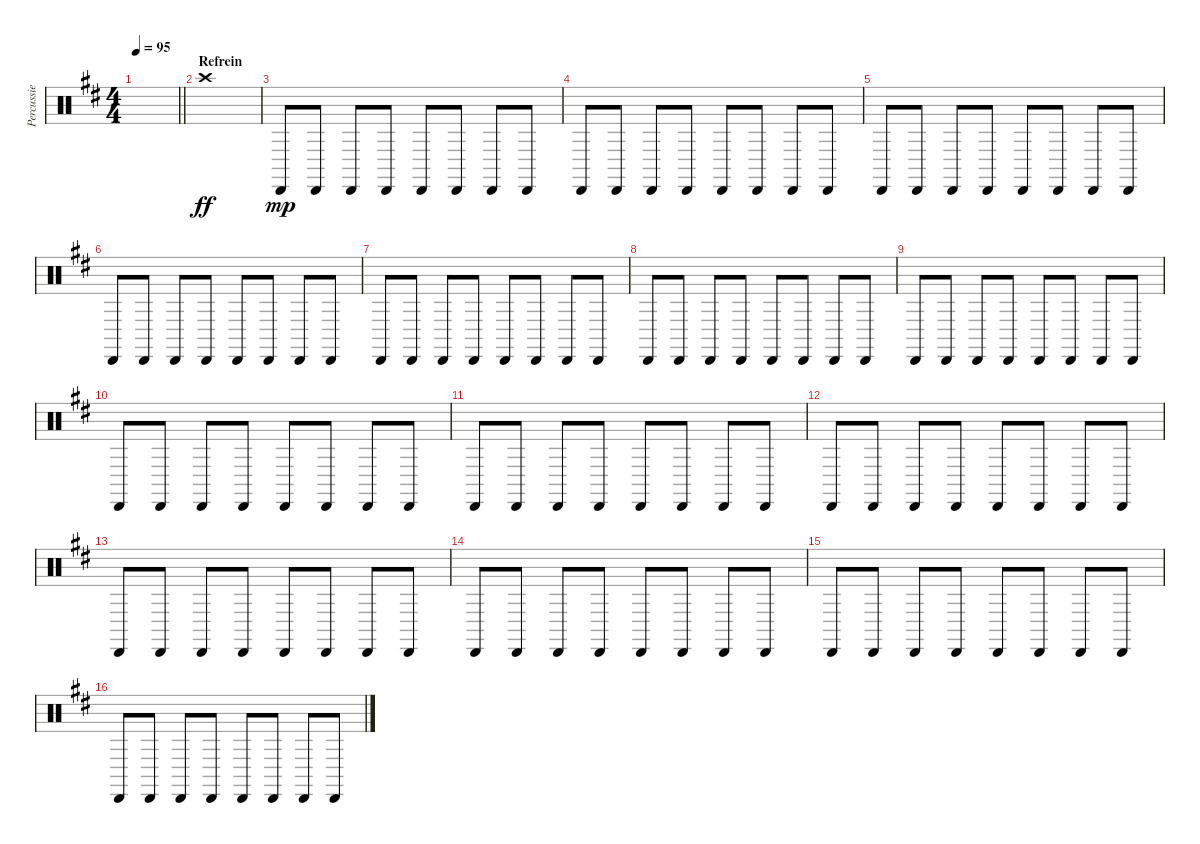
\track ("Percussie" "Percussie") {instrument percussion}
\staff {score}
\articulation defaults
\ts (4 4)
\tempo 95
\clef neutral
\barLineRight lightlight
\ks d
|
\section ("" "Refrein")
"Crash high (hit)".1{dy ff} |
"Cabasa (hit)".8{dy mp} "Cabasa (hit)".8 "Cabasa (hit)".8 "Cabasa (hit)".8 "Cabasa (hit)".8 "Cabasa (hit)".8 "Cabasa (hit)".8 "Cabasa (hit)".8 |
"Cabasa (hit)".8 "Cabasa (hit)".8 "Cabasa (hit)".8 "Cabasa (hit)".8 "Cabasa (hit)".8 "Cabasa (hit)".8 "Cabasa (hit)".8 "Cabasa (hit)".8 |
"Cabasa (hit)".8 "Cabasa (hit)".8 "Cabasa (hit)".8 "Cabasa (hit)".8 "Cabasa (hit)".8 "Cabasa (hit)".8 "Cabasa (hit)".8 "Cabasa (hit)".8 |
"Cabasa (hit)".8 "Cabasa (hit)".8 "Cabasa (hit)".8 "Cabasa (hit)".8 "Cabasa (hit)".8 "Cabasa (hit)".8 "Cabasa (hit)".8 "Cabasa (hit)".8 |
"Cabasa (hit)".8 "Cabasa (hit)".8 "Cabasa (hit)".8 "Cabasa (hit)".8 "Cabasa (hit)".8 "Cabasa (hit)".8 "Cabasa (hit)".8 "Cabasa (hit)".8 |
"Cabasa (hit)".8 "Cabasa (hit)".8 "Cabasa (hit)".8 "Cabasa (hit)".8 "Cabasa (hit)".8 "Cabasa (hit)".8 "Cabasa (hit)".8 "Cabasa (hit)".8 |
"Cabasa (hit)".8 "Cabasa (hit)".8 "Cabasa (hit)".8 "Cabasa (hit)".8 "Cabasa (hit)".8 "Cabasa (hit)".8 "Cabasa (hit)".8 "Cabasa (hit)".8 |
"Cabasa (hit)".8 "Cabasa (hit)".8 "Cabasa (hit)".8 "Cabasa (hit)".8 "Cabasa (hit)".8 "Cabasa (hit)".8 "Cabasa (hit)".8 "Cabasa (hit)".8 |
"Cabasa (hit)".8 "Cabasa (hit)".8 "Cabasa (hit)".8 "Cabasa (hit)".8 "Cabasa (hit)".8 "Cabasa (hit)".8 "Cabasa (hit)".8 "Cabasa (hit)".8 |
"Cabasa (hit)".8 "Cabasa (hit)".8 "Cabasa (hit)".8 "Cabasa (hit)".8 "Cabasa (hit)".8 "Cabasa (hit)".8 "Cabasa (hit)".8 "Cabasa (hit)".8 |
"Cabasa (hit)".8 "Cabasa (hit)".8 "Cabasa (hit)".8 "Cabasa (hit)".8 "Cabasa (hit)".8 "Cabasa (hit)".8 "Cabasa (hit)".8 "Cabasa (hit)".8 |
"Cabasa (hit)".8 "Cabasa (hit)".8 "Cabasa (hit)".8 "Cabasa (hit)".8 "Cabasa (hit)".8 "Cabasa (hit)".8 "Cabasa (hit)".8 "Cabasa (hit)".8 |
"Cabasa (hit)".8 "Cabasa (hit)".8 "Cabasa (hit)".8 "Cabasa (hit)".8 "Cabasa (hit)".8 "Cabasa (hit)".8 "Cabasa (hit)".8 "Cabasa (hit)".8 |
"Cabasa (hit)".8 "Cabasa (hit)".8 "Cabasa (hit)".8 "Cabasa (hit)".8 "Cabasa (hit)".8 "Cabasa (hit)".8 "Cabasa (hit)".8 "Cabasa (hit)".8
